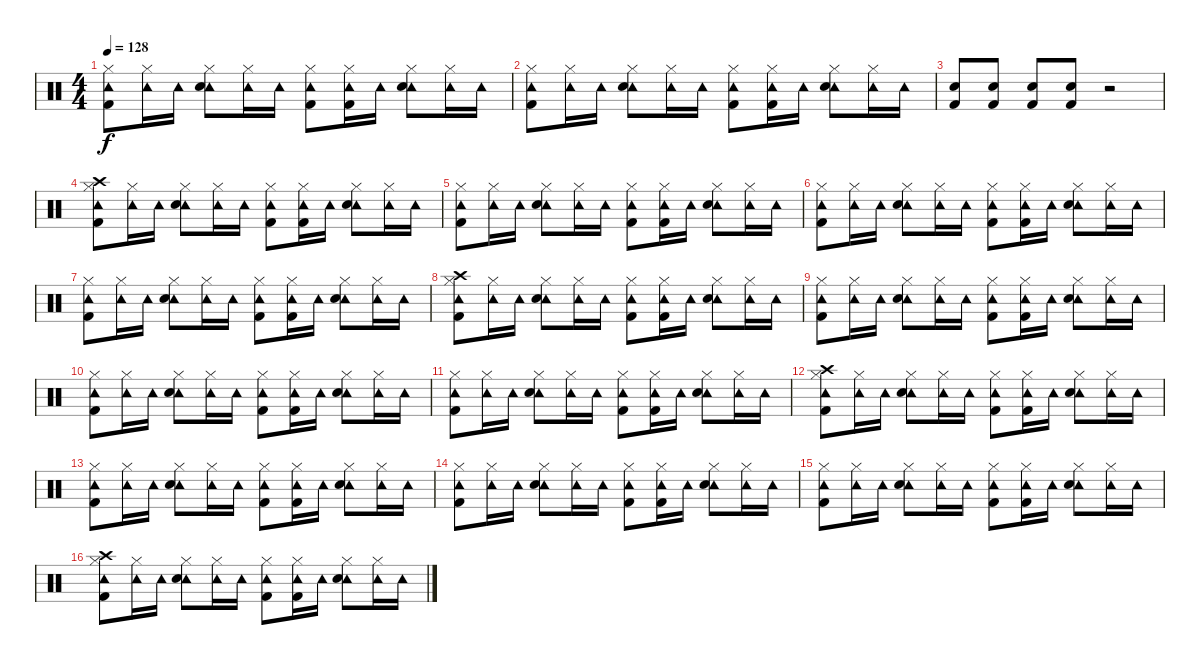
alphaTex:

\track "" {instrument percussion}
\staff {score}
\articulation defaults
\ts (4 4)
\tempo 128
\clef neutral
\ks c
("Hi-Hat (closed)" "Tambourine (hit)" "Kick (hit) 2").8{dy f} ("Hi-Hat (closed)" "Tambourine (hit)").16 "Tambourine (hit)".16 ("Hi-Hat (closed)" "Tambourine (hit)" "Snare (hit) 2").8 ("Hi-Hat (closed)" "Tambourine (hit)").16 "Tambourine (hit)".16 ("Hi-Hat (closed)" "Tambourine (hit)" "Kick (hit) 2").8 ("Hi-Hat (closed)" "Tambourine (hit)" "Kick (hit) 2").16 "Tambourine (hit)".16 ("Hi-Hat (closed)" "Tambourine (hit)" "Snare (hit) 2").8 ("Hi-Hat (closed)" "Tambourine (hit)").16 "Tambourine (hit)".16 |
("Hi-Hat (closed)" "Tambourine (hit)" "Kick (hit) 2").8 ("Hi-Hat (closed)" "Tambourine (hit)").16 "Tambourine (hit)".16 ("Hi-Hat (closed)" "Tambourine (hit)" "Snare (hit) 2").8 ("Hi-Hat (closed)" "Tambourine (hit)").16 "Tambourine (hit)".16 ("Hi-Hat (closed)" "Tambourine (hit)" "Kick (hit) 2").8 ("Hi-Hat (closed)" "Tambourine (hit)" "Kick (hit) 2").16 "Tambourine (hit)".16 ("Hi-Hat (closed)" "Tambourine (hit)" "Snare (hit) 2").8 ("Hi-Hat (closed)" "Tambourine (hit)").16 "Tambourine (hit)".16 |
("Snare (hit) 2" "Kick (hit) 2").8 ("Snare (hit) 2" "Kick (hit) 2").8 ("Snare (hit) 2" "Kick (hit) 2").8 ("Snare (hit) 2" "Kick (hit) 2").8 r.2 |
("Hi-Hat (closed)" "Tambourine (hit)" "Crash high (hit)" "Kick (hit) 2").8 ("Hi-Hat (closed)" "Tambourine (hit)").16 "Tambourine (hit)".16 ("Hi-Hat (closed)" "Tambourine (hit)" "Snare (hit) 2").8 ("Hi-Hat (closed)" "Tambourine (hit)").16 "Tambourine (hit)".16 ("Hi-Hat (closed)" "Tambourine (hit)" "Kick (hit) 2").8 ("Hi-Hat (closed)" "Tambourine (hit)" "Kick (hit) 2").16 "Tambourine (hit)".16 ("Hi-Hat (closed)" "Tambourine (hit)" "Snare (hit) 2").8 ("Hi-Hat (closed)" "Tambourine (hit)").16 "Tambourine (hit)".16 |
("Hi-Hat (closed)" "Tambourine (hit)" "Kick (hit) 2").8 ("Hi-Hat (closed)" "Tambourine (hit)").16 "Tambourine (hit)".16 ("Hi-Hat (closed)" "Tambourine (hit)" "Snare (hit) 2").8 ("Hi-Hat (closed)" "Tambourine (hit)").16 "Tambourine (hit)".16 ("Hi-Hat (closed)" "Tambourine (hit)" "Kick (hit) 2").8 ("Hi-Hat (closed)" "Tambourine (hit)" "Kick (hit) 2").16 "Tambourine (hit)".16 ("Hi-Hat (closed)" "Tambourine (hit)" "Snare (hit) 2").8 ("Hi-Hat (closed)" "Tambourine (hit)").16 "Tambourine (hit)".16 |
("Hi-Hat (closed)" "Tambourine (hit)" "Kick (hit) 2").8 ("Hi-Hat (closed)" "Tambourine (hit)").16 "Tambourine (hit)".16 ("Hi-Hat (closed)" "Tambourine (hit)" "Snare (hit) 2").8 ("Hi-Hat (closed)" "Tambourine (hit)").16 "Tambourine (hit)".16 ("Hi-Hat (closed)" "Tambourine (hit)" "Kick (hit) 2").8 ("Hi-Hat (closed)" "Tambourine (hit)" "Kick (hit) 2").16 "Tambourine (hit)".16 ("Hi-Hat (closed)" "Tambourine (hit)" "Snare (hit) 2").8 ("Hi-Hat (closed)" "Tambourine (hit)").16 "Tambourine (hit)".16 |
("Hi-Hat (closed)" "Tambourine (hit)" "Kick (hit) 2").8 ("Hi-Hat (closed)" "Tambourine (hit)").16 "Tambourine (hit)".16 ("Hi-Hat (closed)" "Tambourine (hit)" "Snare (hit) 2").8 ("Hi-Hat (closed)" "Tambourine (hit)").16 "Tambourine (hit)".16 ("Hi-Hat (closed)" "Tambourine (hit)" "Kick (hit) 2").8 ("Hi-Hat (closed)" "Tambourine (hit)" "Kick (hit) 2").16 "Tambourine (hit)".16 ("Hi-Hat (closed)" "Tambourine (hit)" "Snare (hit) 2").8 ("Hi-Hat (closed)" "Tambourine (hit)").16 "Tambourine (hit)".16 |
("Hi-Hat (closed)" "Tambourine (hit)" "Crash high (hit)" "Kick (hit) 2").8 ("Hi-Hat (closed)" "Tambourine (hit)").16 "Tambourine (hit)".16 ("Hi-Hat (closed)" "Tambourine (hit)" "Snare (hit) 2").8 ("Hi-Hat (closed)" "Tambourine (hit)").16 "Tambourine (hit)".16 ("Hi-Hat (closed)" "Tambourine (hit)" "Kick (hit) 2").8 ("Hi-Hat (closed)" "Tambourine (hit)" "Kick (hit) 2").16 "Tambourine (hit)".16 ("Hi-Hat (closed)" "Tambourine (hit)" "Snare (hit) 2").8 ("Hi-Hat (closed)" "Tambourine (hit)").16 "Tambourine (hit)".16 |
("Hi-Hat (closed)" "Tambourine (hit)" "Kick (hit) 2").8 ("Hi-Hat (closed)" "Tambourine (hit)").16 "Tambourine (hit)".16 ("Hi-Hat (closed)" "Tambourine (hit)" "Snare (hit) 2").8 ("Hi-Hat (closed)" "Tambourine (hit)").16 "Tambourine (hit)".16 ("Hi-Hat (closed)" "Tambourine (hit)" "Kick (hit) 2").8 ("Hi-Hat (closed)" "Tambourine (hit)" "Kick (hit) 2").16 "Tambourine (hit)".16 ("Hi-Hat (closed)" "Tambourine (hit)" "Snare (hit) 2").8 ("Hi-Hat (closed)" "Tambourine (hit)").16 "Tambourine (hit)".16 |
("Hi-Hat (closed)" "Tambourine (hit)" "Kick (hit) 2").8 ("Hi-Hat (closed)" "Tambourine (hit)").16 "Tambourine (hit)".16 ("Hi-Hat (closed)" "Tambourine (hit)" "Snare (hit) 2").8 ("Hi-Hat (closed)" "Tambourine (hit)").16 "Tambourine (hit)".16 ("Hi-Hat (closed)" "Tambourine (hit)" "Kick (hit) 2").8 ("Hi-Hat (closed)" "Tambourine (hit)" "Kick (hit) 2").16 "Tambourine (hit)".16 ("Hi-Hat (closed)" "Tambourine (hit)" "Snare (hit) 2").8 ("Hi-Hat (closed)" "Tambourine (hit)").16 "Tambourine (hit)".16 |
("Hi-Hat (closed)" "Tambourine (hit)" "Kick (hit) 2").8 ("Hi-Hat (closed)" "Tambourine (hit)").16 "Tambourine (hit)".16 ("Hi-Hat (closed)" "Tambourine (hit)" "Snare (hit) 2").8 ("Hi-Hat (closed)" "Tambourine (hit)").16 "Tambourine (hit)".16 ("Hi-Hat (closed)" "Tambourine (hit)" "Kick (hit) 2").8 ("Hi-Hat (closed)" "Tambourine (hit)" "Kick (hit) 2").16 "Tambourine (hit)".16 ("Hi-Hat (closed)" "Tambourine (hit)" "Snare (hit) 2").8 ("Hi-Hat (closed)" "Tambourine (hit)").16 "Tambourine (hit)".16 |
("Hi-Hat (closed)" "Tambourine (hit)" "Crash high (hit)" "Kick (hit) 2").8 ("Hi-Hat (closed)" "Tambourine (hit)").16 "Tambourine (hit)".16 ("Hi-Hat (closed)" "Tambourine (hit)" "Snare (hit) 2").8 ("Hi-Hat (closed)" "Tambourine (hit)").16 "Tambourine (hit)".16 ("Hi-Hat (closed)" "Tambourine (hit)" "Kick (hit) 2").8 ("Hi-Hat (closed)" "Tambourine (hit)" "Kick (hit) 2").16 "Tambourine (hit)".16 ("Hi-Hat (closed)" "Tambourine (hit)" "Snare (hit) 2").8 ("Hi-Hat (closed)" "Tambourine (hit)").16 "Tambourine (hit)".16 |
("Hi-Hat (closed)" "Tambourine (hit)" "Kick (hit) 2").8 ("Hi-Hat (closed)" "Tambourine (hit)").16 "Tambourine (hit)".16 ("Hi-Hat (closed)" "Tambourine (hit)" "Snare (hit) 2").8 ("Hi-Hat (closed)" "Tambourine (hit)").16 "Tambourine (hit)".16 ("Hi-Hat (closed)" "Tambourine (hit)" "Kick (hit) 2").8 ("Hi-Hat (closed)" "Tambourine (hit)" "Kick (hit) 2").16 "Tambourine (hit)".16 ("Hi-Hat (closed)" "Tambourine (hit)" "Snare (hit) 2").8 ("Hi-Hat (closed)" "Tambourine (hit)").16 "Tambourine (hit)".16 |
("Hi-Hat (closed)" "Tambourine (hit)" "Kick (hit) 2").8 ("Hi-Hat (closed)" "Tambourine (hit)").16 "Tambourine (hit)".16 ("Hi-Hat (closed)" "Tambourine (hit)" "Snare (hit) 2").8 ("Hi-Hat (closed)" "Tambourine (hit)").16 "Tambourine (hit)".16 ("Hi-Hat (closed)" "Tambourine (hit)" "Kick (hit) 2").8 ("Hi-Hat (closed)" "Tambourine (hit)" "Kick (hit) 2").16 "Tambourine (hit)".16 ("Hi-Hat (closed)" "Tambourine (hit)" "Snare (hit) 2").8 ("Hi-Hat (closed)" "Tambourine (hit)").16 "Tambourine (hit)".16 |
("Hi-Hat (closed)" "Tambourine (hit)" "Kick (hit) 2").8 ("Hi-Hat (closed)" "Tambourine (hit)").16 "Tambourine (hit)".16 ("Hi-Hat (closed)" "Tambourine (hit)" "Snare (hit) 2").8 ("Hi-Hat (closed)" "Tambourine (hit)").16 "Tambourine (hit)".16 ("Hi-Hat (closed)" "Tambourine (hit)" "Kick (hit) 2").8 ("Hi-Hat (closed)" "Tambourine (hit)" "Kick (hit) 2").16 "Tambourine (hit)".16 ("Hi-Hat (closed)" "Tambourine (hit)" "Snare (hit) 2").8 ("Hi-Hat (closed)" "Tambourine (hit)").16 "Tambourine (hit)".16 |
("Hi-Hat (closed)" "Tambourine (hit)" "Crash high (hit)" "Kick (hit) 2").8 ("Hi-Hat (closed)" "Tambourine (hit)").16 "Tambourine (hit)".16 ("Hi-Hat (closed)" "Tambourine (hit)" "Snare (hit) 2").8 ("Hi-Hat (closed)" "Tambourine (hit)").16 "Tambourine (hit)".16 ("Hi-Hat (closed)" "Tambourine (hit)" "Kick (hit) 2").8 ("Hi-Hat (closed)" "Tambourine (hit)" "Kick (hit) 2").16 "Tambourine (hit)".16 ("Hi-Hat (closed)" "Tambourine (hit)" "Snare (hit) 2").8 ("Hi-Hat (closed)" "Tambourine (hit)").16 "Tambourine (hit)".16
